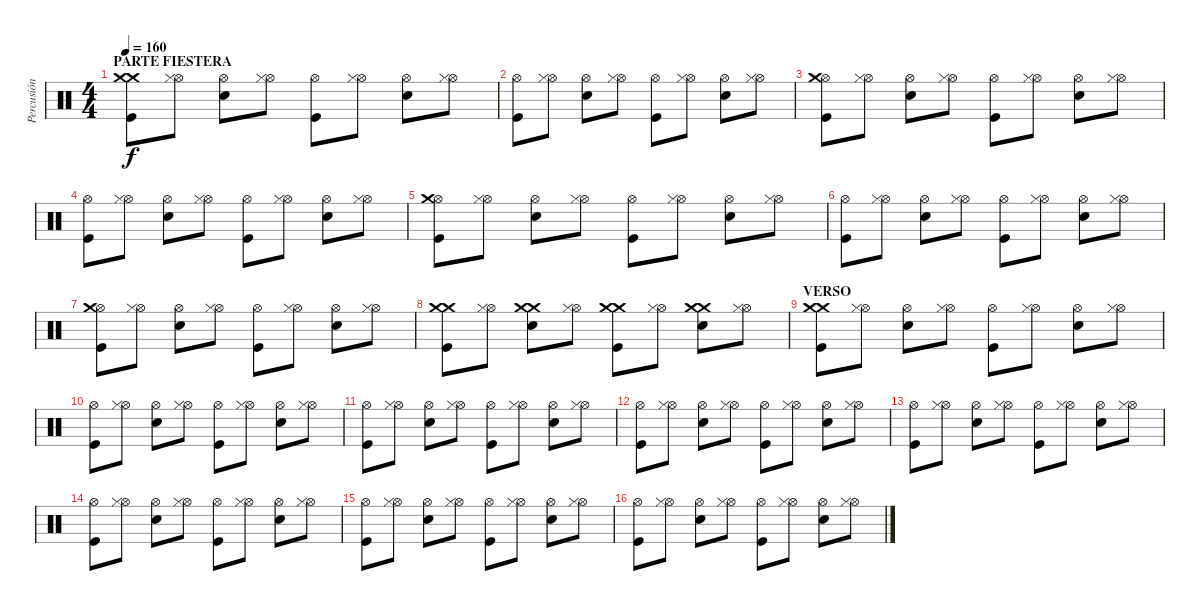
\track ("Percusión" "Percusión") {instrument percussion}
\staff {score}
\articulation defaults
\ts (4 4)
\section ("" "PARTE FIESTERA")
\tempo 160
\clef neutral
\ks c
("Kick (hit)" "Crash medium (hit)" "Crash medium (hit)").8{dy f} ("Hi-Hat (open)" "Hi-Hat (closed)").8 ("Snare (hit) 2" "Hi-Hat (open)").8 ("Hi-Hat (open)" "Hi-Hat (closed)").8 ("Kick (hit)" "Hi-Hat (open)").8 ("Hi-Hat (open)" "Hi-Hat (closed)").8 ("Snare (hit) 2" "Hi-Hat (open)").8 ("Hi-Hat (open)" "Hi-Hat (closed)").8 |
("Kick (hit)" "Hi-Hat (open)").8 ("Hi-Hat (open)" "Hi-Hat (closed)").8 ("Snare (hit) 2" "Hi-Hat (open)").8 ("Hi-Hat (open)" "Hi-Hat (closed)").8 ("Kick (hit)" "Hi-Hat (open)").8 ("Hi-Hat (open)" "Hi-Hat (closed)").8 ("Snare (hit) 2" "Hi-Hat (open)").8 ("Hi-Hat (open)" "Hi-Hat (closed)").8 |
("Kick (hit)" "Hi-Hat (open)" "Crash medium (hit)").8 ("Hi-Hat (open)" "Hi-Hat (closed)").8 ("Snare (hit) 2" "Hi-Hat (open)").8 ("Hi-Hat (open)" "Hi-Hat (closed)").8 ("Kick (hit)" "Hi-Hat (open)").8 ("Hi-Hat (open)" "Hi-Hat (closed)").8 ("Snare (hit) 2" "Hi-Hat (open)").8 ("Hi-Hat (open)" "Hi-Hat (closed)").8 |
("Kick (hit)" "Hi-Hat (open)").8 ("Hi-Hat (open)" "Hi-Hat (closed)").8 ("Snare (hit) 2" "Hi-Hat (open)").8 ("Hi-Hat (open)" "Hi-Hat (closed)").8 ("Kick (hit)" "Hi-Hat (open)").8 ("Hi-Hat (open)" "Hi-Hat (closed)").8 ("Snare (hit) 2" "Hi-Hat (open)").8 ("Hi-Hat (open)" "Hi-Hat (closed)").8 |
("Kick (hit)" "Hi-Hat (open)" "Crash medium (hit)").8 ("Hi-Hat (open)" "Hi-Hat (closed)").8 ("Snare (hit) 2" "Hi-Hat (open)").8 ("Hi-Hat (open)" "Hi-Hat (closed)").8 ("Kick (hit)" "Hi-Hat (open)").8 ("Hi-Hat (open)" "Hi-Hat (closed)").8 ("Snare (hit) 2" "Hi-Hat (open)").8 ("Hi-Hat (open)" "Hi-Hat (closed)").8 |
("Kick (hit)" "Hi-Hat (open)").8 ("Hi-Hat (open)" "Hi-Hat (closed)").8 ("Snare (hit) 2" "Hi-Hat (open)").8 ("Hi-Hat (open)" "Hi-Hat (closed)").8 ("Kick (hit)" "Hi-Hat (open)").8 ("Hi-Hat (open)" "Hi-Hat (closed)").8 ("Snare (hit) 2" "Hi-Hat (open)").8 ("Hi-Hat (open)" "Hi-Hat (closed)").8 |
("Kick (hit)" "Hi-Hat (open)" "Crash medium (hit)").8 ("Hi-Hat (open)" "Hi-Hat (closed)").8 ("Snare (hit) 2" "Hi-Hat (open)").8 ("Hi-Hat (open)" "Hi-Hat (closed)").8 ("Kick (hit)" "Hi-Hat (open)").8 ("Hi-Hat (open)" "Hi-Hat (closed)").8 ("Snare (hit) 2" "Hi-Hat (open)").8 ("Hi-Hat (open)" "Hi-Hat (closed)").8 |
("Kick (hit)" "Crash medium (hit)" "Crash medium (hit)").8 ("Hi-Hat (open)" "Hi-Hat (closed)").8 ("Snare (hit) 2" "Crash medium (hit)" "Crash medium (hit)").8 ("Hi-Hat (open)" "Hi-Hat (closed)").8 ("Kick (hit)" "Crash medium (hit)" "Crash medium (hit)").8 ("Hi-Hat (open)" "Hi-Hat (closed)").8 ("Snare (hit) 2" "Crash medium (hit)" "Crash medium (hit)").8 ("Hi-Hat (open)" "Hi-Hat (closed)").8 |
\section ("" "VERSO ")
("Kick (hit)" "Crash medium (hit)" "Crash medium (hit)").8 ("Hi-Hat (open)" "Hi-Hat (closed)").8 ("Snare (hit) 2" "Hi-Hat (open)").8 ("Hi-Hat (open)" "Hi-Hat (closed)").8 ("Kick (hit)" "Hi-Hat (open)").8 ("Hi-Hat (open)" "Hi-Hat (closed)").8 ("Snare (hit) 2" "Hi-Hat (open)").8 ("Hi-Hat (open)" "Hi-Hat (closed)").8 |
("Kick (hit)" "Hi-Hat (open)").8 ("Hi-Hat (open)" "Hi-Hat (closed)").8 ("Snare (hit) 2" "Hi-Hat (open)").8 ("Hi-Hat (open)" "Hi-Hat (closed)").8 ("Kick (hit)" "Hi-Hat (open)").8 ("Hi-Hat (open)" "Hi-Hat (closed)").8 ("Snare (hit) 2" "Hi-Hat (open)").8 ("Hi-Hat (open)" "Hi-Hat (closed)").8 |
("Kick (hit)" "Hi-Hat (open)").8 ("Hi-Hat (open)" "Hi-Hat (closed)").8 ("Snare (hit) 2" "Hi-Hat (open)").8 ("Hi-Hat (open)" "Hi-Hat (closed)").8 ("Kick (hit)" "Hi-Hat (open)").8 ("Hi-Hat (open)" "Hi-Hat (closed)").8 ("Snare (hit) 2" "Hi-Hat (open)").8 ("Hi-Hat (open)" "Hi-Hat (closed)").8 |
("Kick (hit)" "Hi-Hat (open)").8 ("Hi-Hat (open)" "Hi-Hat (closed)").8 ("Snare (hit) 2" "Hi-Hat (open)").8 ("Hi-Hat (open)" "Hi-Hat (closed)").8 ("Kick (hit)" "Hi-Hat (open)").8 ("Hi-Hat (open)" "Hi-Hat (closed)").8 ("Snare (hit) 2" "Hi-Hat (open)").8 ("Hi-Hat (open)" "Hi-Hat (closed)").8 |
("Kick (hit)" "Hi-Hat (open)").8 ("Hi-Hat (open)" "Hi-Hat (closed)").8 ("Snare (hit) 2" "Hi-Hat (open)").8 ("Hi-Hat (open)" "Hi-Hat (closed)").8 ("Kick (hit)" "Hi-Hat (open)").8 ("Hi-Hat (open)" "Hi-Hat (closed)").8 ("Snare (hit) 2" "Hi-Hat (open)").8 ("Hi-Hat (open)" "Hi-Hat (closed)").8 |
("Kick (hit)" "Hi-Hat (open)").8 ("Hi-Hat (open)" "Hi-Hat (closed)").8 ("Snare (hit) 2" "Hi-Hat (open)").8 ("Hi-Hat (open)" "Hi-Hat (closed)").8 ("Kick (hit)" "Hi-Hat (open)").8 ("Hi-Hat (open)" "Hi-Hat (closed)").8 ("Snare (hit) 2" "Hi-Hat (open)").8 ("Hi-Hat (open)" "Hi-Hat (closed)").8 |
("Kick (hit)" "Hi-Hat (open)").8 ("Hi-Hat (open)" "Hi-Hat (closed)").8 ("Snare (hit) 2" "Hi-Hat (open)").8 ("Hi-Hat (open)" "Hi-Hat (closed)").8 ("Kick (hit)" "Hi-Hat (open)").8 ("Hi-Hat (open)" "Hi-Hat (closed)").8 ("Snare (hit) 2" "Hi-Hat (open)").8 ("Hi-Hat (open)" "Hi-Hat (closed)").8 |
("Kick (hit)" "Hi-Hat (open)").8 ("Hi-Hat (open)" "Hi-Hat (closed)").8 ("Snare (hit) 2" "Hi-Hat (open)").8 ("Hi-Hat (open)" "Hi-Hat (closed)").8 ("Kick (hit)" "Hi-Hat (open)").8 ("Hi-Hat (open)" "Hi-Hat (closed)").8 ("Snare (hit) 2" "Hi-Hat (open)").8 ("Hi-Hat (open)" "Hi-Hat (closed)").8
